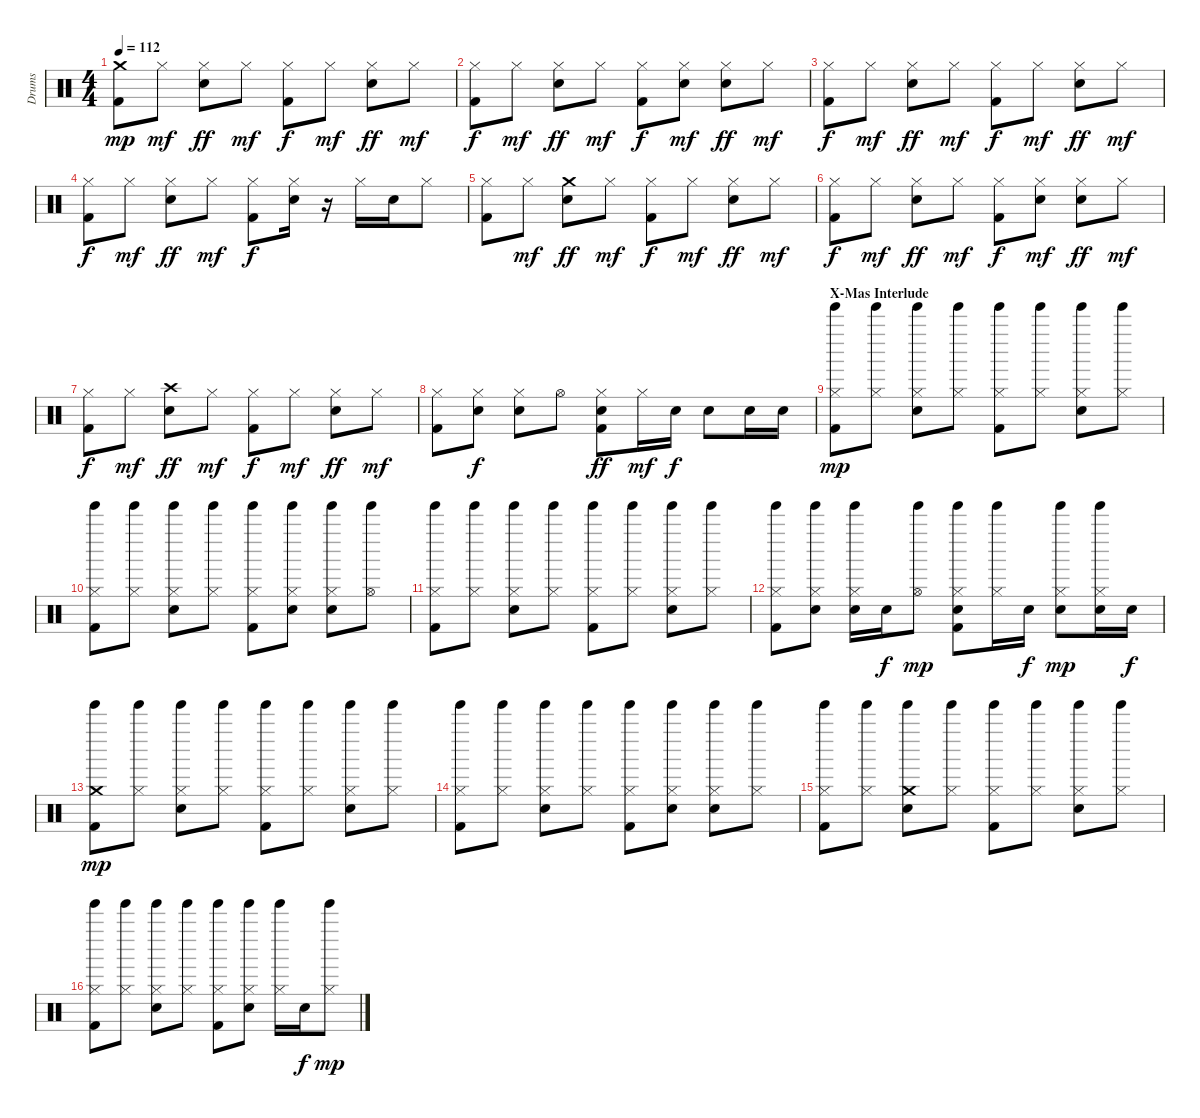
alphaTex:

\track ("Drums" "Drums") {instrument percussion}
\staff {score}
\articulation defaults
\ts (4 4)
\tempo 112
\clef neutral
\ks c
("Crash medium (hit)" "Kick (hit) 2").8{dy mp} "Hi-Hat (closed)".8{dy mf} ("Hi-Hat (closed)" "Snare (hit) 2").8{dy ff} "Hi-Hat (closed)".8{dy mf} ("Hi-Hat (closed)" "Kick (hit) 2").8{dy f} "Hi-Hat (closed)".8{dy mf} ("Hi-Hat (closed)" "Snare (hit) 2").8{dy ff} "Hi-Hat (closed)".8{dy mf} |
("Hi-Hat (closed)" "Kick (hit) 2").8{dy f} "Hi-Hat (closed)".8{dy mf} ("Hi-Hat (closed)" "Snare (hit) 2").8{dy ff} "Hi-Hat (closed)".8{dy mf} ("Hi-Hat (closed)" "Kick (hit) 2").8{dy f} ("Hi-Hat (closed)" "Snare (hit) 2").8{dy mf} ("Hi-Hat (closed)" "Snare (hit) 2").8{dy ff} "Hi-Hat (closed)".8{dy mf} |
("Hi-Hat (closed)" "Kick (hit) 2").8{dy f} "Hi-Hat (closed)".8{dy mf} ("Hi-Hat (closed)" "Snare (hit) 2").8{dy ff} "Hi-Hat (closed)".8{dy mf} ("Hi-Hat (closed)" "Kick (hit) 2").8{dy f} "Hi-Hat (closed)".8{dy mf} ("Hi-Hat (closed)" "Snare (hit) 2").8{dy ff} "Hi-Hat (closed)".8{dy mf} |
("Hi-Hat (closed)" "Kick (hit) 2").8{dy f} "Hi-Hat (closed)".8{dy mf} ("Hi-Hat (closed)" "Snare (hit) 2").8{dy ff} "Hi-Hat (closed)".8{dy mf} ("Hi-Hat (closed)" "Kick (hit) 2").8{dy f} ("Hi-Hat (closed)" "Snare (hit) 2").16 r.16 "Hi-Hat (closed)".16 "Snare (hit) 2".16 "Hi-Hat (closed)".8 |
("Hi-Hat (closed)" "Kick (hit) 2").8 "Hi-Hat (closed)".8{dy mf} ("Crash medium (hit)" "Snare (hit) 2").8{dy ff} "Hi-Hat (closed)".8{dy mf} ("Hi-Hat (closed)" "Kick (hit) 2").8{dy f} "Hi-Hat (closed)".8{dy mf} ("Hi-Hat (closed)" "Snare (hit) 2").8{dy ff} "Hi-Hat (closed)".8{dy mf} |
("Hi-Hat (closed)" "Kick (hit) 2").8{dy f} "Hi-Hat (closed)".8{dy mf} ("Hi-Hat (closed)" "Snare (hit) 2").8{dy ff} "Hi-Hat (closed)".8{dy mf} ("Hi-Hat (closed)" "Kick (hit) 2").8{dy f} ("Hi-Hat (closed)" "Snare (hit) 2").8{dy mf} ("Hi-Hat (closed)" "Snare (hit) 2").8{dy ff} "Hi-Hat (closed)".8{dy mf} |
("Hi-Hat (closed)" "Kick (hit) 2").8{dy f} "Hi-Hat (closed)".8{dy mf} ("Crash high (hit)" "Snare (hit) 2").8{dy ff} "Hi-Hat (closed)".8{dy mf} ("Hi-Hat (closed)" "Kick (hit) 2").8{dy f} "Hi-Hat (closed)".8{dy mf} ("Hi-Hat (closed)" "Snare (hit) 2").8{dy ff} "Hi-Hat (closed)".8{dy mf} |
("Hi-Hat (closed)" "Kick (hit) 2").8 ("Hi-Hat (closed)" "Snare (hit) 2").8{dy f} ("Hi-Hat (closed)" "Snare (hit) 2").8 "Hi-Hat (open)".8 ("Hi-Hat (closed)" "Snare (hit) 2" "Kick (hit) 2").8{dy ff} "Hi-Hat (closed)".16{dy mf} "Snare (hit) 2".16{dy f} "Snare (hit) 2".8 "Snare (hit) 2".16 "Snare (hit) 2".16 |
\section ("" "X-Mas Interlude")
("Hi-Hat (closed)" "Tinkle Bell (hit)" "Kick (hit) 2").8{dy mp} ("Hi-Hat (closed)" "Tinkle Bell (hit)").8 ("Hi-Hat (closed)" "Tinkle Bell (hit)" "Snare (hit) 2").8 ("Hi-Hat (closed)" "Tinkle Bell (hit)").8 ("Hi-Hat (closed)" "Tinkle Bell (hit)" "Kick (hit) 2").8 ("Hi-Hat (closed)" "Tinkle Bell (hit)").8 ("Hi-Hat (closed)" "Tinkle Bell (hit)" "Snare (hit) 2").8 ("Hi-Hat (closed)" "Tinkle Bell (hit)").8 |
("Hi-Hat (closed)" "Tinkle Bell (hit)" "Kick (hit) 2").8 ("Hi-Hat (closed)" "Tinkle Bell (hit)").8 ("Hi-Hat (closed)" "Tinkle Bell (hit)" "Snare (hit) 2").8 ("Hi-Hat (closed)" "Tinkle Bell (hit)").8 ("Hi-Hat (closed)" "Tinkle Bell (hit)" "Kick (hit) 2").8 ("Hi-Hat (closed)" "Tinkle Bell (hit)" "Snare (hit) 2").8 ("Hi-Hat (closed)" "Tinkle Bell (hit)" "Snare (hit) 2").8 ("Hi-Hat (open)" "Tinkle Bell (hit)").8 |
("Hi-Hat (closed)" "Tinkle Bell (hit)" "Kick (hit) 2").8 ("Hi-Hat (closed)" "Tinkle Bell (hit)").8 ("Hi-Hat (closed)" "Tinkle Bell (hit)" "Snare (hit) 2").8 ("Hi-Hat (closed)" "Tinkle Bell (hit)").8 ("Hi-Hat (closed)" "Tinkle Bell (hit)" "Kick (hit) 2").8 ("Hi-Hat (closed)" "Tinkle Bell (hit)").8 ("Hi-Hat (closed)" "Tinkle Bell (hit)" "Snare (hit) 2").8 ("Hi-Hat (closed)" "Tinkle Bell (hit)").8 |
("Hi-Hat (closed)" "Tinkle Bell (hit)" "Kick (hit) 2").8 ("Hi-Hat (closed)" "Tinkle Bell (hit)" "Snare (hit) 2").8 ("Hi-Hat (closed)" "Tinkle Bell (hit)" "Snare (hit) 2").16 "Snare (hit) 2".16{dy f} ("Hi-Hat (open)" "Tinkle Bell (hit)").8{dy mp} ("Hi-Hat (closed)" "Tinkle Bell (hit)" "Snare (hit) 2" "Kick (hit) 2").8 ("Hi-Hat (closed)" "Tinkle Bell (hit)").16 "Snare (hit) 2".16{dy f} ("Hi-Hat (closed)" "Tinkle Bell (hit)" "Snare (hit) 2").8{dy mp} ("Hi-Hat (closed)" "Tinkle Bell (hit)" "Snare (hit) 2").16 "Snare (hit) 2".16{dy f} |
("Crash medium (hit)" "Tinkle Bell (hit)" "Kick (hit) 2").8{dy mp} ("Hi-Hat (closed)" "Tinkle Bell (hit)").8 ("Hi-Hat (closed)" "Tinkle Bell (hit)" "Snare (hit) 2").8 ("Hi-Hat (closed)" "Tinkle Bell (hit)").8 ("Hi-Hat (closed)" "Tinkle Bell (hit)" "Kick (hit) 2").8 ("Hi-Hat (closed)" "Tinkle Bell (hit)").8 ("Hi-Hat (closed)" "Tinkle Bell (hit)" "Snare (hit) 2").8 ("Hi-Hat (closed)" "Tinkle Bell (hit)").8 |
("Hi-Hat (closed)" "Tinkle Bell (hit)" "Kick (hit) 2").8 ("Hi-Hat (closed)" "Tinkle Bell (hit)").8 ("Hi-Hat (closed)" "Tinkle Bell (hit)" "Snare (hit) 2").8 ("Hi-Hat (closed)" "Tinkle Bell (hit)").8 ("Hi-Hat (closed)" "Tinkle Bell (hit)" "Kick (hit) 2").8 ("Hi-Hat (closed)" "Tinkle Bell (hit)" "Snare (hit) 2").8 ("Hi-Hat (closed)" "Tinkle Bell (hit)" "Snare (hit) 2").8 ("Hi-Hat (closed)" "Tinkle Bell (hit)").8 |
("Hi-Hat (closed)" "Tinkle Bell (hit)" "Kick (hit) 2").8 ("Hi-Hat (closed)" "Tinkle Bell (hit)").8 ("Crash medium (hit)" "Tinkle Bell (hit)" "Snare (hit) 2").8 ("Hi-Hat (closed)" "Tinkle Bell (hit)").8 ("Hi-Hat (closed)" "Tinkle Bell (hit)" "Kick (hit) 2").8 ("Hi-Hat (closed)" "Tinkle Bell (hit)").8 ("Hi-Hat (closed)" "Tinkle Bell (hit)" "Snare (hit) 2").8 ("Hi-Hat (closed)" "Tinkle Bell (hit)").8 |
("Hi-Hat (closed)" "Tinkle Bell (hit)" "Kick (hit) 2").8 ("Hi-Hat (closed)" "Tinkle Bell (hit)").8 ("Hi-Hat (closed)" "Tinkle Bell (hit)" "Snare (hit) 2").8 ("Hi-Hat (closed)" "Tinkle Bell (hit)").8 ("Hi-Hat (closed)" "Tinkle Bell (hit)" "Kick (hit) 2").8 ("Hi-Hat (closed)" "Tinkle Bell (hit)" "Snare (hit) 2").8 ("Hi-Hat (closed)" "Tinkle Bell (hit)").16 "Snare (hit) 2".16{dy f} ("Hi-Hat (closed)" "Tinkle Bell (hit)").8{dy mp}
